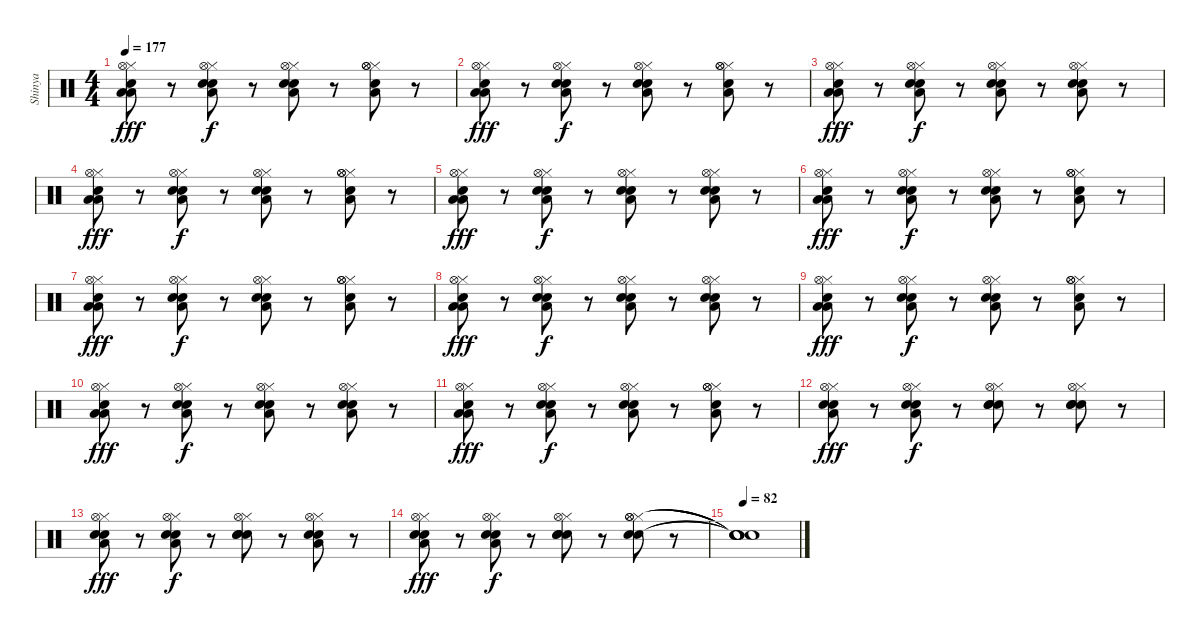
\track ("Shinya " "Shinya ") {instrument percussion}
\staff {score}
\articulation defaults
\ts (4 4)
\tempo 177
\clef neutral
\ks c
("Hi-Hat (closed)" "Electric Snare (hit)" "Low Tom (hit)" "Hi-Hat (open)" "Low Tom (hit)").8{dy fff} r.8 ("Hi-Hat (closed)" "Electric Snare (hit)" "Low Tom (hit)" "Hi-Hat (open)" "Snare (hit) 2").8{dy f} r.8 ("Hi-Hat (closed)" "Electric Snare (hit)" "Hi-Hat (open)" "Snare (hit) 2" "Low Tom (hit)").8 r.8 ("Hi-Hat (closed)" "Hi-Hat (open)" "Electric Snare (hit)" "Hi-Hat (open)" "Low Tom (hit)").8 r.8 |
("Hi-Hat (closed)" "Electric Snare (hit)" "Low Tom (hit)" "Hi-Hat (open)" "Low Tom (hit)").8{dy fff} r.8 ("Hi-Hat (closed)" "Electric Snare (hit)" "Low Tom (hit)" "Hi-Hat (open)" "Snare (hit) 2").8{dy f} r.8 ("Hi-Hat (closed)" "Electric Snare (hit)" "Hi-Hat (open)" "Snare (hit) 2" "Low Tom (hit)").8 r.8 ("Hi-Hat (closed)" "Hi-Hat (open)" "Electric Snare (hit)" "Hi-Hat (open)" "Low Tom (hit)").8 r.8 |
("Hi-Hat (closed)" "Electric Snare (hit)" "Low Tom (hit)" "Hi-Hat (open)" "Low Tom (hit)").8{dy fff} r.8 ("Hi-Hat (closed)" "Electric Snare (hit)" "Low Tom (hit)" "Hi-Hat (open)" "Snare (hit) 2").8{dy f} r.8 ("Hi-Hat (closed)" "Electric Snare (hit)" "Electric Snare (hit)" "Hi-Hat (open)" "Low Tom (hit)").8 r.8 ("Hi-Hat (closed)" "Electric Snare (hit)" "Electric Snare (hit)" "Hi-Hat (open)" "Low Tom (hit)").8 r.8 |
("Hi-Hat (closed)" "Electric Snare (hit)" "Low Tom (hit)" "Hi-Hat (open)" "Low Tom (hit)").8{dy fff} r.8 ("Hi-Hat (closed)" "Electric Snare (hit)" "Low Tom (hit)" "Hi-Hat (open)" "Snare (hit) 2").8{dy f} r.8 ("Hi-Hat (closed)" "Electric Snare (hit)" "Hi-Hat (open)" "Snare (hit) 2" "Low Tom (hit)").8 r.8 ("Hi-Hat (closed)" "Hi-Hat (open)" "Electric Snare (hit)" "Hi-Hat (open)" "Low Tom (hit)").8 r.8 |
("Hi-Hat (closed)" "Electric Snare (hit)" "Low Tom (hit)" "Hi-Hat (open)" "Low Tom (hit)").8{dy fff} r.8 ("Hi-Hat (closed)" "Electric Snare (hit)" "Low Tom (hit)" "Hi-Hat (open)" "Snare (hit) 2").8{dy f} r.8 ("Hi-Hat (closed)" "Electric Snare (hit)" "Electric Snare (hit)" "Hi-Hat (open)" "Low Tom (hit)").8 r.8 ("Hi-Hat (closed)" "Electric Snare (hit)" "Electric Snare (hit)" "Hi-Hat (open)" "Low Tom (hit)").8 r.8 |
("Hi-Hat (closed)" "Electric Snare (hit)" "Low Tom (hit)" "Hi-Hat (open)" "Low Tom (hit)").8{dy fff} r.8 ("Hi-Hat (closed)" "Electric Snare (hit)" "Low Tom (hit)" "Hi-Hat (open)" "Snare (hit) 2").8{dy f} r.8 ("Hi-Hat (closed)" "Electric Snare (hit)" "Hi-Hat (open)" "Snare (hit) 2" "Low Tom (hit)").8 r.8 ("Hi-Hat (closed)" "Hi-Hat (open)" "Electric Snare (hit)" "Hi-Hat (open)" "Low Tom (hit)").8 r.8 |
("Hi-Hat (closed)" "Electric Snare (hit)" "Low Tom (hit)" "Hi-Hat (open)" "Low Tom (hit)").8{dy fff} r.8 ("Hi-Hat (closed)" "Electric Snare (hit)" "Low Tom (hit)" "Hi-Hat (open)" "Snare (hit) 2").8{dy f} r.8 ("Hi-Hat (closed)" "Electric Snare (hit)" "Hi-Hat (open)" "Snare (hit) 2" "Low Tom (hit)").8 r.8 ("Hi-Hat (closed)" "Hi-Hat (open)" "Electric Snare (hit)" "Hi-Hat (open)" "Low Tom (hit)").8 r.8 |
("Hi-Hat (closed)" "Electric Snare (hit)" "Low Tom (hit)" "Hi-Hat (open)" "Low Tom (hit)").8{dy fff} r.8 ("Hi-Hat (closed)" "Electric Snare (hit)" "Low Tom (hit)" "Hi-Hat (open)" "Snare (hit) 2").8{dy f} r.8 ("Hi-Hat (closed)" "Electric Snare (hit)" "Electric Snare (hit)" "Hi-Hat (open)" "Low Tom (hit)").8 r.8 ("Hi-Hat (closed)" "Electric Snare (hit)" "Electric Snare (hit)" "Hi-Hat (open)" "Low Tom (hit)").8 r.8 |
("Hi-Hat (closed)" "Electric Snare (hit)" "Low Tom (hit)" "Hi-Hat (open)" "Low Tom (hit)").8{dy fff} r.8 ("Hi-Hat (closed)" "Electric Snare (hit)" "Low Tom (hit)" "Hi-Hat (open)" "Snare (hit) 2").8{dy f} r.8 ("Hi-Hat (closed)" "Electric Snare (hit)" "Hi-Hat (open)" "Snare (hit) 2" "Low Tom (hit)").8 r.8 ("Hi-Hat (closed)" "Hi-Hat (open)" "Electric Snare (hit)" "Hi-Hat (open)" "Low Tom (hit)").8 r.8 |
("Hi-Hat (closed)" "Electric Snare (hit)" "Low Tom (hit)" "Hi-Hat (open)" "Low Tom (hit)").8{dy fff} r.8 ("Hi-Hat (closed)" "Electric Snare (hit)" "Low Tom (hit)" "Hi-Hat (open)" "Snare (hit) 2").8{dy f} r.8 ("Hi-Hat (closed)" "Electric Snare (hit)" "Electric Snare (hit)" "Hi-Hat (open)" "Low Tom (hit)").8 r.8 ("Hi-Hat (closed)" "Electric Snare (hit)" "Electric Snare (hit)" "Hi-Hat (open)" "Low Tom (hit)").8 r.8 |
("Hi-Hat (closed)" "Electric Snare (hit)" "Low Tom (hit)" "Hi-Hat (open)" "Low Tom (hit)").8{dy fff} r.8 ("Hi-Hat (closed)" "Electric Snare (hit)" "Low Tom (hit)" "Hi-Hat (open)" "Snare (hit) 2").8{dy f} r.8 ("Hi-Hat (closed)" "Electric Snare (hit)" "Hi-Hat (open)" "Snare (hit) 2" "Low Tom (hit)").8 r.8 ("Hi-Hat (closed)" "Hi-Hat (open)" "Electric Snare (hit)" "Hi-Hat (open)" "Low Tom (hit)").8 r.8 |
("Hi-Hat (closed)" "Electric Snare (hit)" "Low Tom (hit)" "Electric Snare (hit)" "Hi-Hat (open)").8{dy fff} r.8 ("Hi-Hat (closed)" "Electric Snare (hit)" "Low Tom (hit)" "Electric Snare (hit)" "Hi-Hat (open)").8{dy f} r.8 ("Hi-Hat (closed)" "Electric Snare (hit)" "Electric Snare (hit)" "Snare (hit) 2" "Hi-Hat (open)").8 r.8 ("Hi-Hat (closed)" "Electric Snare (hit)" "Electric Snare (hit)" "Electric Snare (hit)" "Hi-Hat (open)").8 r.8 |
("Hi-Hat (closed)" "Electric Snare (hit)" "Low Tom (hit)" "Electric Snare (hit)" "Hi-Hat (open)").8{dy fff} r.8 ("Hi-Hat (closed)" "Electric Snare (hit)" "Low Tom (hit)" "Electric Snare (hit)" "Hi-Hat (open)").8{dy f} r.8 ("Hi-Hat (closed)" "Electric Snare (hit)" "Electric Snare (hit)" "Snare (hit) 2" "Hi-Hat (open)").8 r.8 ("Hi-Hat (closed)" "Electric Snare (hit)" "Electric Snare (hit)" "Low Tom (hit)" "Hi-Hat (open)").8 r.8 |
("Hi-Hat (closed)" "Electric Snare (hit)" "Low Tom (hit)" "Electric Snare (hit)" "Hi-Hat (open)").8{dy fff} r.8 ("Hi-Hat (closed)" "Electric Snare (hit)" "Low Tom (hit)" "Electric Snare (hit)" "Hi-Hat (open)").8{dy f} r.8 ("Hi-Hat (closed)" "Electric Snare (hit)" "Electric Snare (hit)" "Snare (hit) 2" "Hi-Hat (open)").8 r.8 ("Hi-Hat (closed)" "Electric Snare (hit)" "Electric Snare (hit)" "Hi-Hat (open)" "Hi-Hat (open)").8 r.8 |
\tempo 82
("Snare (hit)"{t} "Snare (hit)"{t} "Snare (hit)"{t} "Snare (hit)"{t} "Snare (hit)"{t}).1
